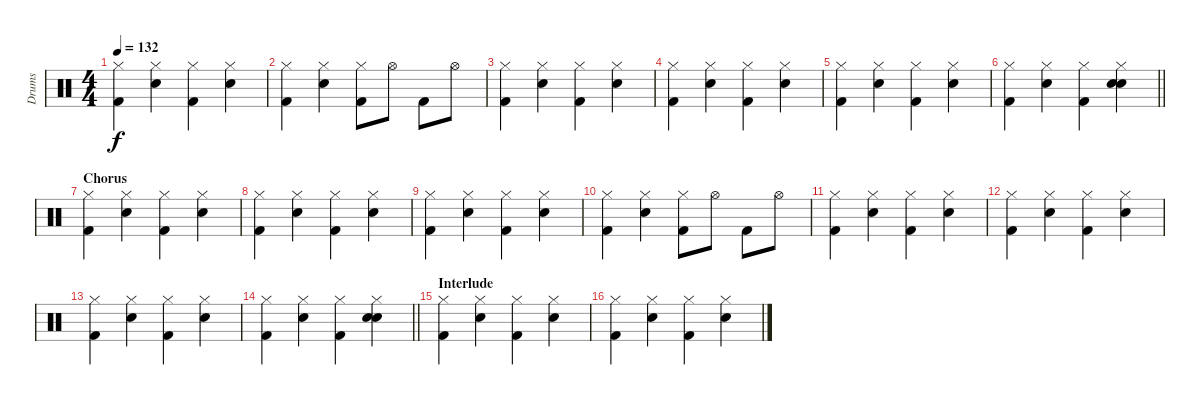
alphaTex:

\track ("Drums" "Drums") {instrument percussion}
\staff {score}
\articulation defaults
\ts (4 4)
\tempo 132
\clef neutral
\ks c
("Hi-Hat (closed)" "Kick (hit) 2").4{dy f} ("Hi-Hat (closed)" "Snare (hit) 2").4 ("Hi-Hat (closed)" "Kick (hit) 2").4 ("Hi-Hat (closed)" "Snare (hit) 2").4 |
("Hi-Hat (closed)" "Kick (hit) 2").4 ("Hi-Hat (closed)" "Snare (hit) 2").4 ("Hi-Hat (closed)" "Kick (hit) 2").8 "Hi-Hat (open)".8 "Kick (hit) 2".8 "Hi-Hat (open)".8 |
("Hi-Hat (closed)" "Kick (hit) 2").4 ("Hi-Hat (closed)" "Snare (hit) 2").4 ("Hi-Hat (closed)" "Kick (hit) 2").4 ("Hi-Hat (closed)" "Snare (hit) 2").4 |
("Hi-Hat (closed)" "Kick (hit) 2").4 ("Hi-Hat (closed)" "Snare (hit) 2").4 ("Hi-Hat (closed)" "Kick (hit) 2").4 ("Hi-Hat (closed)" "Snare (hit) 2").4 |
("Hi-Hat (closed)" "Kick (hit) 2").4 ("Hi-Hat (closed)" "Snare (hit) 2").4 ("Hi-Hat (closed)" "Kick (hit) 2").4 ("Hi-Hat (closed)" "Snare (hit) 2").4 |
\barLineRight lightlight
("Hi-Hat (closed)" "Kick (hit) 2").4 ("Hi-Hat (closed)" "Snare (hit) 2").4 ("Hi-Hat (closed)" "Kick (hit) 2").4 ("Hi-Hat (closed)" "Hand Clap (hit)" "Snare (hit) 2").4 |
\section ("" "Chorus")
("Hi-Hat (closed)" "Kick (hit) 2").4 ("Hi-Hat (closed)" "Snare (hit) 2").4 ("Hi-Hat (closed)" "Kick (hit) 2").4 ("Hi-Hat (closed)" "Snare (hit) 2").4 |
("Hi-Hat (closed)" "Kick (hit) 2").4 ("Hi-Hat (closed)" "Snare (hit) 2").4 ("Hi-Hat (closed)" "Kick (hit) 2").4 ("Hi-Hat (closed)" "Snare (hit) 2").4 |
("Hi-Hat (closed)" "Kick (hit) 2").4 ("Hi-Hat (closed)" "Snare (hit) 2").4 ("Hi-Hat (closed)" "Kick (hit) 2").4 ("Hi-Hat (closed)" "Snare (hit) 2").4 |
("Hi-Hat (closed)" "Kick (hit) 2").4 ("Hi-Hat (closed)" "Snare (hit) 2").4 ("Hi-Hat (closed)" "Kick (hit) 2").8 "Hi-Hat (open)".8 "Kick (hit) 2".8 "Hi-Hat (open)".8 |
("Hi-Hat (closed)" "Kick (hit) 2").4 ("Hi-Hat (closed)" "Snare (hit) 2").4 ("Hi-Hat (closed)" "Kick (hit) 2").4 ("Hi-Hat (closed)" "Snare (hit) 2").4 |
("Hi-Hat (closed)" "Kick (hit) 2").4 ("Hi-Hat (closed)" "Snare (hit) 2").4 ("Hi-Hat (closed)" "Kick (hit) 2").4 ("Hi-Hat (closed)" "Snare (hit) 2").4 |
("Hi-Hat (closed)" "Kick (hit) 2").4 ("Hi-Hat (closed)" "Snare (hit) 2").4 ("Hi-Hat (closed)" "Kick (hit) 2").4 ("Hi-Hat (closed)" "Snare (hit) 2").4 |
\barLineRight lightlight
("Hi-Hat (closed)" "Kick (hit) 2").4 ("Hi-Hat (closed)" "Snare (hit) 2").4 ("Hi-Hat (closed)" "Kick (hit) 2").4 ("Hi-Hat (closed)" "Hand Clap (hit)" "Snare (hit) 2").4 |
\section ("" "Interlude")
("Hi-Hat (closed)" "Kick (hit) 2").4 ("Hi-Hat (closed)" "Snare (hit) 2").4 ("Hi-Hat (closed)" "Kick (hit) 2").4 ("Hi-Hat (closed)" "Snare (hit) 2").4 |
("Hi-Hat (closed)" "Kick (hit) 2").4 ("Hi-Hat (closed)" "Snare (hit) 2").4 ("Hi-Hat (closed)" "Kick (hit) 2").4 ("Hi-Hat (closed)" "Snare (hit) 2").4
